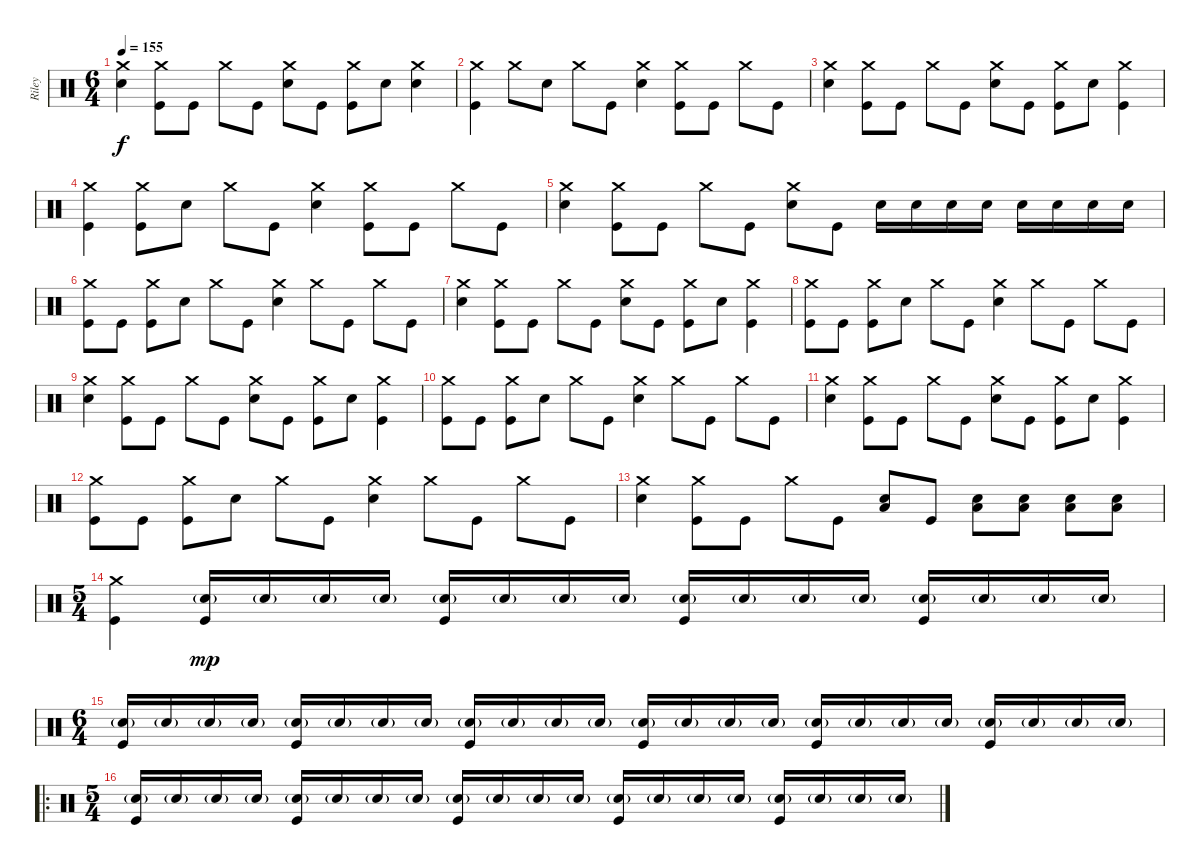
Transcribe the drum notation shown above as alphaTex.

\track ("Riley" "Riley") {instrument percussion bank 177}
\staff {score}
\articulation defaults
\ts (6 4)
\tempo 155
\clef neutral
\ks c
("Crash medium (hit)" "Snare (hit) 2").4{dy f} ("Crash medium (hit)" "Kick (hit)").8 "Kick (hit)".8 "Crash medium (hit)".8 "Kick (hit)".8 ("Crash medium (hit)" "Snare (hit) 2").8 "Kick (hit)".8 ("Crash medium (hit)" "Kick (hit)").8 "Snare (hit) 2".8 ("Crash medium (hit)" "Snare (hit) 2").4 |
("Crash medium (hit)" "Kick (hit)").4 "Crash medium (hit)".8 "Snare (hit) 2".8 "Crash medium (hit)".8 "Kick (hit)".8 ("Crash medium (hit)" "Snare (hit) 2").4 ("Crash medium (hit)" "Kick (hit)").8 "Kick (hit)".8 "Crash medium (hit)".8 "Kick (hit)".8 |
("Crash medium (hit)" "Snare (hit) 2").4 ("Crash medium (hit)" "Kick (hit)").8 "Kick (hit)".8 "Crash medium (hit)".8 "Kick (hit)".8 ("Crash medium (hit)" "Snare (hit) 2").8 "Kick (hit)".8 ("Crash medium (hit)" "Kick (hit)").8 "Snare (hit) 2".8 ("Crash medium (hit)" "Kick (hit)").4 |
("Crash medium (hit)" "Kick (hit)").4 ("Crash medium (hit)" "Kick (hit)").8 "Snare (hit) 2".8 "Crash medium (hit)".8 "Kick (hit)".8 ("Crash medium (hit)" "Snare (hit) 2").4 ("Crash medium (hit)" "Kick (hit)").8 "Kick (hit)".8 "Crash medium (hit)".8 "Kick (hit)".8 |
("Crash medium (hit)" "Snare (hit) 2").4 ("Crash medium (hit)" "Kick (hit)").8 "Kick (hit)".8 "Crash medium (hit)".8 "Kick (hit)".8 ("Crash medium (hit)" "Snare (hit) 2").8 "Kick (hit)".8 "Snare (hit) 2".16 "Snare (hit) 2".16 "Snare (hit) 2".16 "Snare (hit) 2".16 "Snare (hit) 2".16 "Snare (hit) 2".16 "Snare (hit) 2".16 "Snare (hit) 2".16 |
("Crash medium (hit)" "Kick (hit)").8 "Kick (hit)".8 ("Crash medium (hit)" "Kick (hit)").8 "Snare (hit) 2".8 "Crash medium (hit)".8 "Kick (hit)".8 ("Crash medium (hit)" "Snare (hit) 2").4 "Crash medium (hit)".8 "Kick (hit)".8 "Crash medium (hit)".8 "Kick (hit)".8 |
("Crash medium (hit)" "Snare (hit) 2").4 ("Crash medium (hit)" "Kick (hit)").8 "Kick (hit)".8 "Crash medium (hit)".8 "Kick (hit)".8 ("Crash medium (hit)" "Snare (hit) 2").8 "Kick (hit)".8 ("Crash medium (hit)" "Kick (hit)").8 "Snare (hit) 2".8 ("Crash medium (hit)" "Kick (hit)").4 |
("Crash medium (hit)" "Kick (hit)").8 "Kick (hit)".8 ("Crash medium (hit)" "Kick (hit)").8 "Snare (hit) 2".8 "Crash medium (hit)".8 "Kick (hit)".8 ("Crash medium (hit)" "Snare (hit) 2").4 "Crash medium (hit)".8 "Kick (hit)".8 "Crash medium (hit)".8 "Kick (hit)".8 |
("Crash medium (hit)" "Snare (hit) 2").4 ("Crash medium (hit)" "Kick (hit)").8 "Kick (hit)".8 "Crash medium (hit)".8 "Kick (hit)".8 ("Crash medium (hit)" "Snare (hit) 2").8 "Kick (hit)".8 ("Crash medium (hit)" "Kick (hit)").8 "Snare (hit) 2".8 ("Crash medium (hit)" "Kick (hit)").4 |
("Crash medium (hit)" "Kick (hit)").8 "Kick (hit)".8 ("Crash medium (hit)" "Kick (hit)").8 "Snare (hit) 2".8 "Crash medium (hit)".8 "Kick (hit)".8 ("Crash medium (hit)" "Snare (hit) 2").4 "Crash medium (hit)".8 "Kick (hit)".8 "Crash medium (hit)".8 "Kick (hit)".8 |
("Crash medium (hit)" "Snare (hit) 2").4 ("Crash medium (hit)" "Kick (hit)").8 "Kick (hit)".8 "Crash medium (hit)".8 "Kick (hit)".8 ("Crash medium (hit)" "Snare (hit) 2").8 "Kick (hit)".8 ("Crash medium (hit)" "Kick (hit)").8 "Snare (hit) 2".8 ("Crash medium (hit)" "Kick (hit)").4 |
("Crash medium (hit)" "Kick (hit)").8 "Kick (hit)".8 ("Crash medium (hit)" "Kick (hit)").8 "Snare (hit) 2".8 "Crash medium (hit)".8 "Kick (hit)".8 ("Crash medium (hit)" "Snare (hit) 2").4 "Crash medium (hit)".8 "Kick (hit)".8 "Crash medium (hit)".8 "Kick (hit)".8 |
("Crash medium (hit)" "Snare (hit) 2").4 ("Crash medium (hit)" "Kick (hit)").8 "Kick (hit)".8 "Crash medium (hit)".8 "Kick (hit)".8 ("Snare (hit) 2" "Low Floor Tom (hit)").8 "Kick (hit)".8 ("Snare (hit) 2" "Low Floor Tom (hit)").8 ("Snare (hit) 2" "Low Floor Tom (hit)").8 ("Snare (hit) 2" "Low Floor Tom (hit)").8 ("Snare (hit) 2" "Low Floor Tom (hit)").8 |
\ts (5 4)
("Crash medium (hit)" "Kick (hit)").4 ("Snare (hit) 2"{g} "Kick (hit)").16{dy mp} "Snare (hit) 2"{g}.16 "Snare (hit) 2"{g}.16 "Snare (hit) 2"{g}.16 ("Snare (hit) 2"{g} "Kick (hit)").16 "Snare (hit) 2"{g}.16 "Snare (hit) 2"{g}.16 "Snare (hit) 2"{g}.16 ("Snare (hit) 2"{g} "Kick (hit)").16 "Snare (hit) 2"{g}.16 "Snare (hit) 2"{g}.16 "Snare (hit) 2"{g}.16 ("Snare (hit) 2"{g} "Kick (hit)").16 "Snare (hit) 2"{g}.16 "Snare (hit) 2"{g}.16 "Snare (hit) 2"{g}.16 |
\ts (6 4)
("Snare (hit) 2"{g} "Kick (hit)").16 "Snare (hit) 2"{g}.16 "Snare (hit) 2"{g}.16 "Snare (hit) 2"{g}.16 ("Snare (hit) 2"{g} "Kick (hit)").16 "Snare (hit) 2"{g}.16 "Snare (hit) 2"{g}.16 "Snare (hit) 2"{g}.16 ("Snare (hit) 2"{g} "Kick (hit)").16 "Snare (hit) 2"{g}.16 "Snare (hit) 2"{g}.16 "Snare (hit) 2"{g}.16 ("Snare (hit) 2"{g} "Kick (hit)").16 "Snare (hit) 2"{g}.16 "Snare (hit) 2"{g}.16 "Snare (hit) 2"{g}.16 ("Snare (hit) 2"{g} "Kick (hit)").16 "Snare (hit) 2"{g}.16 "Snare (hit) 2"{g}.16 "Snare (hit) 2"{g}.16 ("Snare (hit) 2"{g} "Kick (hit)").16 "Snare (hit) 2"{g}.16 "Snare (hit) 2"{g}.16 "Snare (hit) 2"{g}.16 |
\ro
\ts (5 4)
("Snare (hit) 2"{g} "Kick (hit)").16 "Snare (hit) 2"{g}.16 "Snare (hit) 2"{g}.16 "Snare (hit) 2"{g}.16 ("Snare (hit) 2"{g} "Kick (hit)").16 "Snare (hit) 2"{g}.16 "Snare (hit) 2"{g}.16 "Snare (hit) 2"{g}.16 ("Snare (hit) 2"{g} "Kick (hit)").16 "Snare (hit) 2"{g}.16 "Snare (hit) 2"{g}.16 "Snare (hit) 2"{g}.16 ("Snare (hit) 2"{g} "Kick (hit)").16 "Snare (hit) 2"{g}.16 "Snare (hit) 2"{g}.16 "Snare (hit) 2"{g}.16 ("Snare (hit) 2"{g} "Kick (hit)").16 "Snare (hit) 2"{g}.16 "Snare (hit) 2"{g}.16 "Snare (hit) 2"{g}.16
